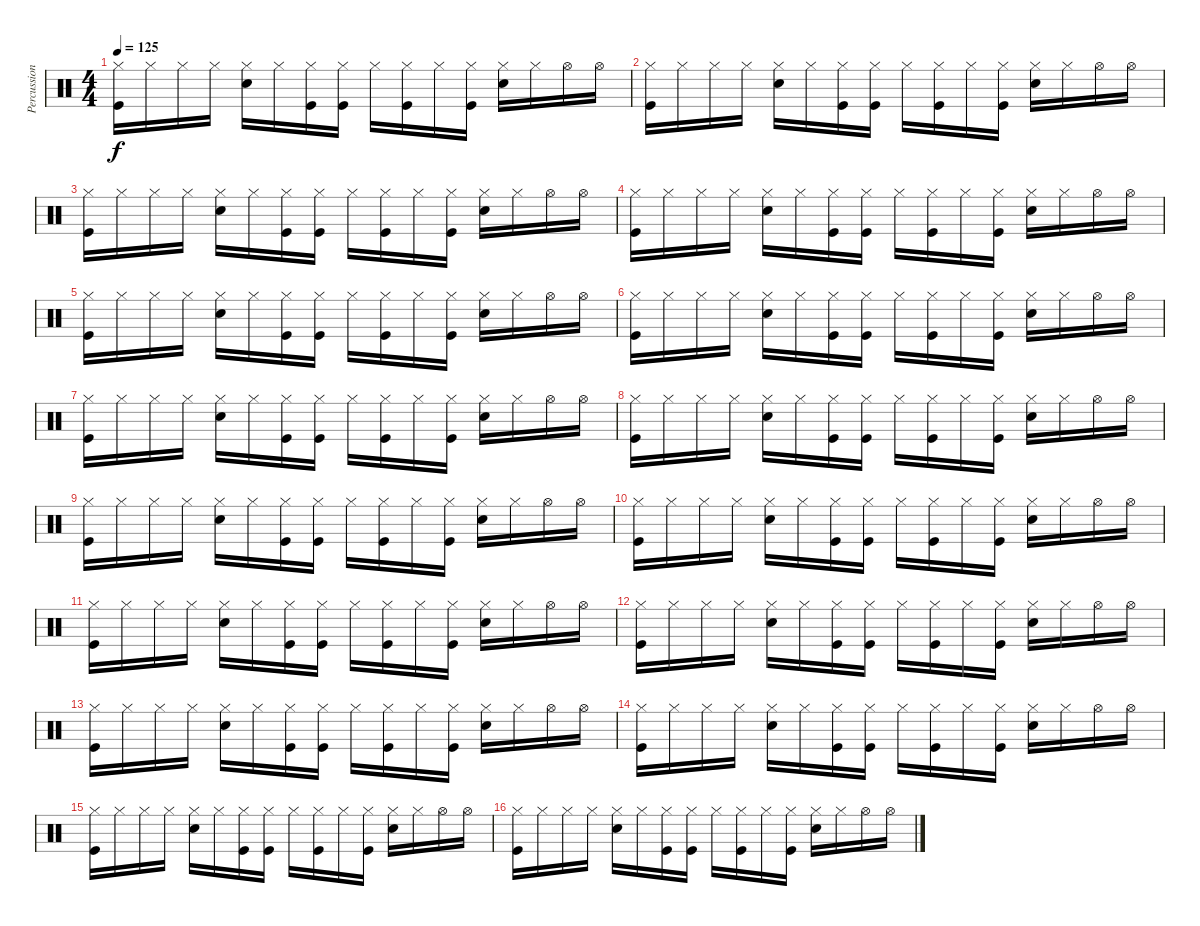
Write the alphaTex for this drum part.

\track ("Percussion" "Percussion") {instrument percussion}
\staff {score}
\articulation defaults
\ts (4 4)
\tempo 125
\clef neutral
\ks c
("Hi-Hat (closed)" "Kick (hit)").16{dy f} "Hi-Hat (closed)".16 "Hi-Hat (closed)".16 "Hi-Hat (closed)".16 ("Hi-Hat (closed)" "Electric Snare (hit)").16 "Hi-Hat (closed)".16 ("Hi-Hat (closed)" "Kick (hit)").16 ("Hi-Hat (closed)" "Kick (hit)").16 "Hi-Hat (closed)".16 ("Hi-Hat (closed)" "Kick (hit)").16 "Hi-Hat (closed)".16 ("Hi-Hat (closed)" "Kick (hit)").16 ("Hi-Hat (closed)" "Electric Snare (hit)").16 "Hi-Hat (closed)".16 "Hi-Hat (open)".16 "Hi-Hat (open)".16 |
("Hi-Hat (closed)" "Kick (hit)").16 "Hi-Hat (closed)".16 "Hi-Hat (closed)".16 "Hi-Hat (closed)".16 ("Hi-Hat (closed)" "Electric Snare (hit)").16 "Hi-Hat (closed)".16 ("Hi-Hat (closed)" "Kick (hit)").16 ("Hi-Hat (closed)" "Kick (hit)").16 "Hi-Hat (closed)".16 ("Hi-Hat (closed)" "Kick (hit)").16 "Hi-Hat (closed)".16 ("Hi-Hat (closed)" "Kick (hit)").16 ("Hi-Hat (closed)" "Electric Snare (hit)").16 "Hi-Hat (closed)".16 "Hi-Hat (open)".16 "Hi-Hat (open)".16 |
("Hi-Hat (closed)" "Kick (hit)").16 "Hi-Hat (closed)".16 "Hi-Hat (closed)".16 "Hi-Hat (closed)".16 ("Hi-Hat (closed)" "Electric Snare (hit)").16 "Hi-Hat (closed)".16 ("Hi-Hat (closed)" "Kick (hit)").16 ("Hi-Hat (closed)" "Kick (hit)").16 "Hi-Hat (closed)".16 ("Hi-Hat (closed)" "Kick (hit)").16 "Hi-Hat (closed)".16 ("Hi-Hat (closed)" "Kick (hit)").16 ("Hi-Hat (closed)" "Electric Snare (hit)").16 "Hi-Hat (closed)".16 "Hi-Hat (open)".16 "Hi-Hat (open)".16 |
("Hi-Hat (closed)" "Kick (hit)").16 "Hi-Hat (closed)".16 "Hi-Hat (closed)".16 "Hi-Hat (closed)".16 ("Hi-Hat (closed)" "Electric Snare (hit)").16 "Hi-Hat (closed)".16 ("Hi-Hat (closed)" "Kick (hit)").16 ("Hi-Hat (closed)" "Kick (hit)").16 "Hi-Hat (closed)".16 ("Hi-Hat (closed)" "Kick (hit)").16 "Hi-Hat (closed)".16 ("Hi-Hat (closed)" "Kick (hit)").16 ("Hi-Hat (closed)" "Electric Snare (hit)").16 "Hi-Hat (closed)".16 "Hi-Hat (open)".16 "Hi-Hat (open)".16 |
("Hi-Hat (closed)" "Kick (hit)").16 "Hi-Hat (closed)".16 "Hi-Hat (closed)".16 "Hi-Hat (closed)".16 ("Hi-Hat (closed)" "Electric Snare (hit)").16 "Hi-Hat (closed)".16 ("Hi-Hat (closed)" "Kick (hit)").16 ("Hi-Hat (closed)" "Kick (hit)").16 "Hi-Hat (closed)".16 ("Hi-Hat (closed)" "Kick (hit)").16 "Hi-Hat (closed)".16 ("Hi-Hat (closed)" "Kick (hit)").16 ("Hi-Hat (closed)" "Electric Snare (hit)").16 "Hi-Hat (closed)".16 "Hi-Hat (open)".16 "Hi-Hat (open)".16 |
("Hi-Hat (closed)" "Kick (hit)").16 "Hi-Hat (closed)".16 "Hi-Hat (closed)".16 "Hi-Hat (closed)".16 ("Hi-Hat (closed)" "Electric Snare (hit)").16 "Hi-Hat (closed)".16 ("Hi-Hat (closed)" "Kick (hit)").16 ("Hi-Hat (closed)" "Kick (hit)").16 "Hi-Hat (closed)".16 ("Hi-Hat (closed)" "Kick (hit)").16 "Hi-Hat (closed)".16 ("Hi-Hat (closed)" "Kick (hit)").16 ("Hi-Hat (closed)" "Electric Snare (hit)").16 "Hi-Hat (closed)".16 "Hi-Hat (open)".16 "Hi-Hat (open)".16 |
("Hi-Hat (closed)" "Kick (hit)").16 "Hi-Hat (closed)".16 "Hi-Hat (closed)".16 "Hi-Hat (closed)".16 ("Hi-Hat (closed)" "Electric Snare (hit)").16 "Hi-Hat (closed)".16 ("Hi-Hat (closed)" "Kick (hit)").16 ("Hi-Hat (closed)" "Kick (hit)").16 "Hi-Hat (closed)".16 ("Hi-Hat (closed)" "Kick (hit)").16 "Hi-Hat (closed)".16 ("Hi-Hat (closed)" "Kick (hit)").16 ("Hi-Hat (closed)" "Electric Snare (hit)").16 "Hi-Hat (closed)".16 "Hi-Hat (open)".16 "Hi-Hat (open)".16 |
("Hi-Hat (closed)" "Kick (hit)").16 "Hi-Hat (closed)".16 "Hi-Hat (closed)".16 "Hi-Hat (closed)".16 ("Hi-Hat (closed)" "Electric Snare (hit)").16 "Hi-Hat (closed)".16 ("Hi-Hat (closed)" "Kick (hit)").16 ("Hi-Hat (closed)" "Kick (hit)").16 "Hi-Hat (closed)".16 ("Hi-Hat (closed)" "Kick (hit)").16 "Hi-Hat (closed)".16 ("Hi-Hat (closed)" "Kick (hit)").16 ("Hi-Hat (closed)" "Electric Snare (hit)").16 "Hi-Hat (closed)".16 "Hi-Hat (open)".16 "Hi-Hat (open)".16 |
("Hi-Hat (closed)" "Kick (hit)").16 "Hi-Hat (closed)".16 "Hi-Hat (closed)".16 "Hi-Hat (closed)".16 ("Hi-Hat (closed)" "Electric Snare (hit)").16 "Hi-Hat (closed)".16 ("Hi-Hat (closed)" "Kick (hit)").16 ("Hi-Hat (closed)" "Kick (hit)").16 "Hi-Hat (closed)".16 ("Hi-Hat (closed)" "Kick (hit)").16 "Hi-Hat (closed)".16 ("Hi-Hat (closed)" "Kick (hit)").16 ("Hi-Hat (closed)" "Electric Snare (hit)").16 "Hi-Hat (closed)".16 "Hi-Hat (open)".16 "Hi-Hat (open)".16 |
("Hi-Hat (closed)" "Kick (hit)").16 "Hi-Hat (closed)".16 "Hi-Hat (closed)".16 "Hi-Hat (closed)".16 ("Hi-Hat (closed)" "Electric Snare (hit)").16 "Hi-Hat (closed)".16 ("Hi-Hat (closed)" "Kick (hit)").16 ("Hi-Hat (closed)" "Kick (hit)").16 "Hi-Hat (closed)".16 ("Hi-Hat (closed)" "Kick (hit)").16 "Hi-Hat (closed)".16 ("Hi-Hat (closed)" "Kick (hit)").16 ("Hi-Hat (closed)" "Electric Snare (hit)").16 "Hi-Hat (closed)".16 "Hi-Hat (open)".16 "Hi-Hat (open)".16 |
("Hi-Hat (closed)" "Kick (hit)").16 "Hi-Hat (closed)".16 "Hi-Hat (closed)".16 "Hi-Hat (closed)".16 ("Hi-Hat (closed)" "Electric Snare (hit)").16 "Hi-Hat (closed)".16 ("Hi-Hat (closed)" "Kick (hit)").16 ("Hi-Hat (closed)" "Kick (hit)").16 "Hi-Hat (closed)".16 ("Hi-Hat (closed)" "Kick (hit)").16 "Hi-Hat (closed)".16 ("Hi-Hat (closed)" "Kick (hit)").16 ("Hi-Hat (closed)" "Electric Snare (hit)").16 "Hi-Hat (closed)".16 "Hi-Hat (open)".16 "Hi-Hat (open)".16 |
("Hi-Hat (closed)" "Kick (hit)").16 "Hi-Hat (closed)".16 "Hi-Hat (closed)".16 "Hi-Hat (closed)".16 ("Hi-Hat (closed)" "Electric Snare (hit)").16 "Hi-Hat (closed)".16 ("Hi-Hat (closed)" "Kick (hit)").16 ("Hi-Hat (closed)" "Kick (hit)").16 "Hi-Hat (closed)".16 ("Hi-Hat (closed)" "Kick (hit)").16 "Hi-Hat (closed)".16 ("Hi-Hat (closed)" "Kick (hit)").16 ("Hi-Hat (closed)" "Electric Snare (hit)").16 "Hi-Hat (closed)".16 "Hi-Hat (open)".16 "Hi-Hat (open)".16 |
("Hi-Hat (closed)" "Kick (hit)").16 "Hi-Hat (closed)".16 "Hi-Hat (closed)".16 "Hi-Hat (closed)".16 ("Hi-Hat (closed)" "Electric Snare (hit)").16 "Hi-Hat (closed)".16 ("Hi-Hat (closed)" "Kick (hit)").16 ("Hi-Hat (closed)" "Kick (hit)").16 "Hi-Hat (closed)".16 ("Hi-Hat (closed)" "Kick (hit)").16 "Hi-Hat (closed)".16 ("Hi-Hat (closed)" "Kick (hit)").16 ("Hi-Hat (closed)" "Electric Snare (hit)").16 "Hi-Hat (closed)".16 "Hi-Hat (open)".16 "Hi-Hat (open)".16 |
("Hi-Hat (closed)" "Kick (hit)").16 "Hi-Hat (closed)".16 "Hi-Hat (closed)".16 "Hi-Hat (closed)".16 ("Hi-Hat (closed)" "Electric Snare (hit)").16 "Hi-Hat (closed)".16 ("Hi-Hat (closed)" "Kick (hit)").16 ("Hi-Hat (closed)" "Kick (hit)").16 "Hi-Hat (closed)".16 ("Hi-Hat (closed)" "Kick (hit)").16 "Hi-Hat (closed)".16 ("Hi-Hat (closed)" "Kick (hit)").16 ("Hi-Hat (closed)" "Electric Snare (hit)").16 "Hi-Hat (closed)".16 "Hi-Hat (open)".16 "Hi-Hat (open)".16 |
("Hi-Hat (closed)" "Kick (hit)").16 "Hi-Hat (closed)".16 "Hi-Hat (closed)".16 "Hi-Hat (closed)".16 ("Hi-Hat (closed)" "Electric Snare (hit)").16 "Hi-Hat (closed)".16 ("Hi-Hat (closed)" "Kick (hit)").16 ("Hi-Hat (closed)" "Kick (hit)").16 "Hi-Hat (closed)".16 ("Hi-Hat (closed)" "Kick (hit)").16 "Hi-Hat (closed)".16 ("Hi-Hat (closed)" "Kick (hit)").16 ("Hi-Hat (closed)" "Electric Snare (hit)").16 "Hi-Hat (closed)".16 "Hi-Hat (open)".16 "Hi-Hat (open)".16 |
("Hi-Hat (closed)" "Kick (hit)").16 "Hi-Hat (closed)".16 "Hi-Hat (closed)".16 "Hi-Hat (closed)".16 ("Hi-Hat (closed)" "Electric Snare (hit)").16 "Hi-Hat (closed)".16 ("Hi-Hat (closed)" "Kick (hit)").16 ("Hi-Hat (closed)" "Kick (hit)").16 "Hi-Hat (closed)".16 ("Hi-Hat (closed)" "Kick (hit)").16 "Hi-Hat (closed)".16 ("Hi-Hat (closed)" "Kick (hit)").16 ("Hi-Hat (closed)" "Electric Snare (hit)").16 "Hi-Hat (closed)".16 "Hi-Hat (open)".16 "Hi-Hat (open)".16
